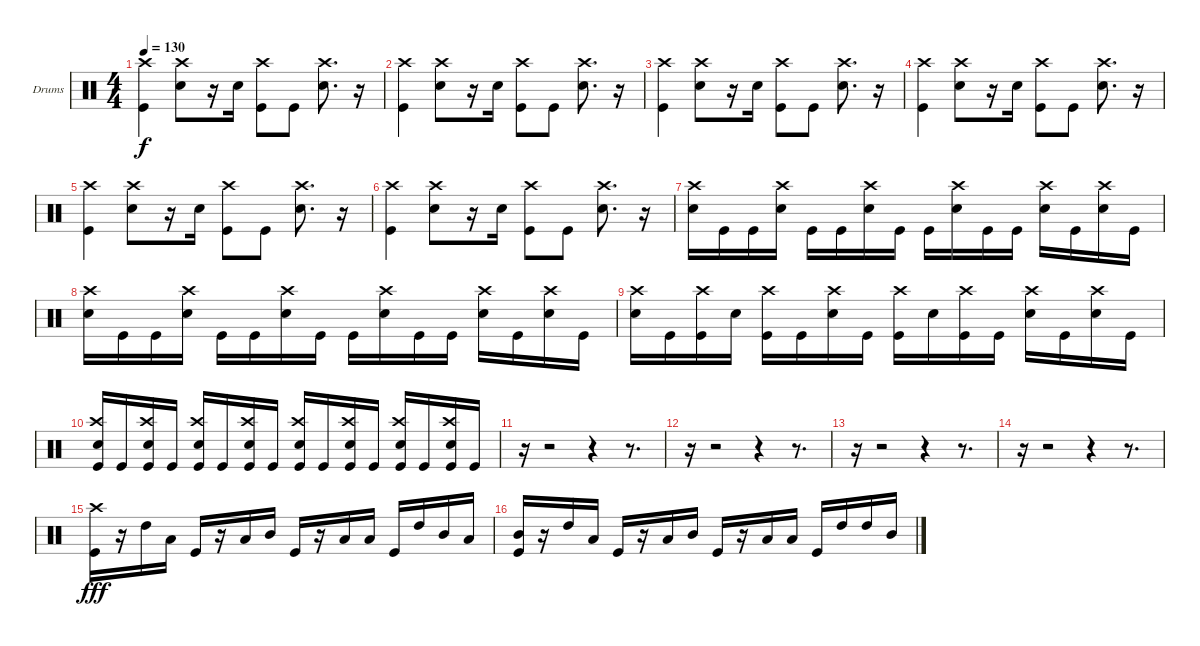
\bracketExtendMode groupsimilarinstruments
\firstSystemTrackNameOrientation horizontal
\otherSystemsTrackNameOrientation horizontal
\track ("Drumkit" "Drums") {instrument percussion}
\staff {score}
\articulation defaults
\ts (4 4)
\tempo 130
\clef neutral
\ks c
("Kick (hit)" "Crash high (hit)").4{dy f} ("Snare (hit) 2" "Crash high (hit)").8 r.16 "Snare (hit) 2".16 ("Kick (hit)" "Crash high (hit)").8 "Kick (hit)".8 ("Snare (hit) 2" "Crash high (hit)").8{d} r.16 |
("Kick (hit)" "Crash high (hit)").4 ("Snare (hit) 2" "Crash high (hit)").8 r.16 "Snare (hit) 2".16 ("Kick (hit)" "Crash high (hit)").8 "Kick (hit)".8 ("Snare (hit) 2" "Crash high (hit)").8{d} r.16 |
("Kick (hit)" "Crash high (hit)").4 ("Snare (hit) 2" "Crash high (hit)").8 r.16 "Snare (hit) 2".16 ("Kick (hit)" "Crash high (hit)").8 "Kick (hit)".8 ("Snare (hit) 2" "Crash high (hit)").8{d} r.16 |
("Kick (hit)" "Crash high (hit)").4 ("Snare (hit) 2" "Crash high (hit)").8 r.16 "Snare (hit) 2".16 ("Kick (hit)" "Crash high (hit)").8 "Kick (hit)".8 ("Snare (hit) 2" "Crash high (hit)").8{d} r.16 |
("Kick (hit)" "Crash high (hit)").4 ("Snare (hit) 2" "Crash high (hit)").8 r.16 "Snare (hit) 2".16 ("Kick (hit)" "Crash high (hit)").8 "Kick (hit)".8 ("Snare (hit) 2" "Crash high (hit)").8{d} r.16 |
("Kick (hit)" "Crash high (hit)").4 ("Snare (hit) 2" "Crash high (hit)").8 r.16 "Snare (hit) 2".16 ("Kick (hit)" "Crash high (hit)").8 "Kick (hit)".8 ("Snare (hit) 2" "Crash high (hit)").8{d} r.16 |
("Crash high (hit)" "Snare (hit) 2").16 "Kick (hit)".16 "Kick (hit)".16 ("Crash high (hit)" "Snare (hit) 2").16 "Kick (hit)".16 "Kick (hit)".16 ("Crash high (hit)" "Snare (hit) 2").16 "Kick (hit)".16 "Kick (hit)".16 ("Crash high (hit)" "Snare (hit) 2").16 "Kick (hit)".16 "Kick (hit)".16 ("Crash high (hit)" "Snare (hit) 2").16 "Kick (hit)".16 ("Crash high (hit)" "Snare (hit) 2").16 "Kick (hit)".16 |
("Crash high (hit)" "Snare (hit) 2").16 "Kick (hit)".16 "Kick (hit)".16 ("Crash high (hit)" "Snare (hit) 2").16 "Kick (hit)".16 "Kick (hit)".16 ("Crash high (hit)" "Snare (hit) 2").16 "Kick (hit)".16 "Kick (hit)".16 ("Crash high (hit)" "Snare (hit) 2").16 "Kick (hit)".16 "Kick (hit)".16 ("Crash high (hit)" "Snare (hit) 2").16 "Kick (hit)".16 ("Crash high (hit)" "Snare (hit) 2").16 "Kick (hit)".16 |
("Crash high (hit)" "Snare (hit) 2").16 "Kick (hit)".16 ("Crash high (hit)" "Kick (hit)").16 "Snare (hit) 2".16 ("Crash high (hit)" "Kick (hit)").16 "Kick (hit)".16 ("Crash high (hit)" "Snare (hit) 2").16 "Kick (hit)".16 ("Crash high (hit)" "Kick (hit)").16 "Snare (hit) 2".16 ("Crash high (hit)" "Kick (hit)").16 "Kick (hit)".16 ("Crash high (hit)" "Snare (hit) 2").16 "Kick (hit)".16 ("Crash high (hit)" "Snare (hit) 2").16 "Kick (hit)".16 |
("Crash high (hit)" "Snare (hit) 2" "Kick (hit)").16 "Kick (hit)".16 ("Crash high (hit)" "Snare (hit) 2" "Kick (hit)").16 "Kick (hit)".16 ("Crash high (hit)" "Snare (hit) 2" "Kick (hit)").16 "Kick (hit)".16 ("Crash high (hit)" "Snare (hit) 2" "Kick (hit)").16 "Kick (hit)".16 ("Crash high (hit)" "Snare (hit) 2" "Kick (hit)").16 "Kick (hit)".16 ("Crash high (hit)" "Snare (hit) 2" "Kick (hit)").16 "Kick (hit)".16 ("Crash high (hit)" "Snare (hit) 2" "Kick (hit)").16 "Kick (hit)".16 ("Crash high (hit)" "Snare (hit) 2" "Kick (hit)").16 "Kick (hit)".16 |
r.16 r.2 r.4 r.8{d} |
r.16 r.2 r.4 r.8{d} |
r.16 r.2 r.4 r.8{d} |
r.16 r.2 r.4 r.8{d} |
("Crash high (hit)" "Kick (hit)").16{dy fff} r.16 "High Tom (hit)".16 "Low Tom (hit)".16 "Kick (hit)".16 r.16 "Low Tom (hit)".16 "Mid Tom (hit)".16 "Kick (hit)".16 r.16 "Low Tom (hit)".16 "Low Tom (hit)".16 "Kick (hit)".16 "High Tom (hit)".16 "Mid Tom (hit)".16 "Low Tom (hit)".16 |
("Mid Tom (hit)" "Kick (hit)").16 r.16 "High Tom (hit)".16 "Low Tom (hit)".16 "Kick (hit)".16 r.16 "Low Tom (hit)".16 "Mid Tom (hit)".16 "Kick (hit)".16 r.16 "Low Tom (hit)".16 "Low Tom (hit)".16 "Kick (hit)".16 "High Tom (hit)".16 "High Tom (hit)".16 "Mid Tom (hit)".16
